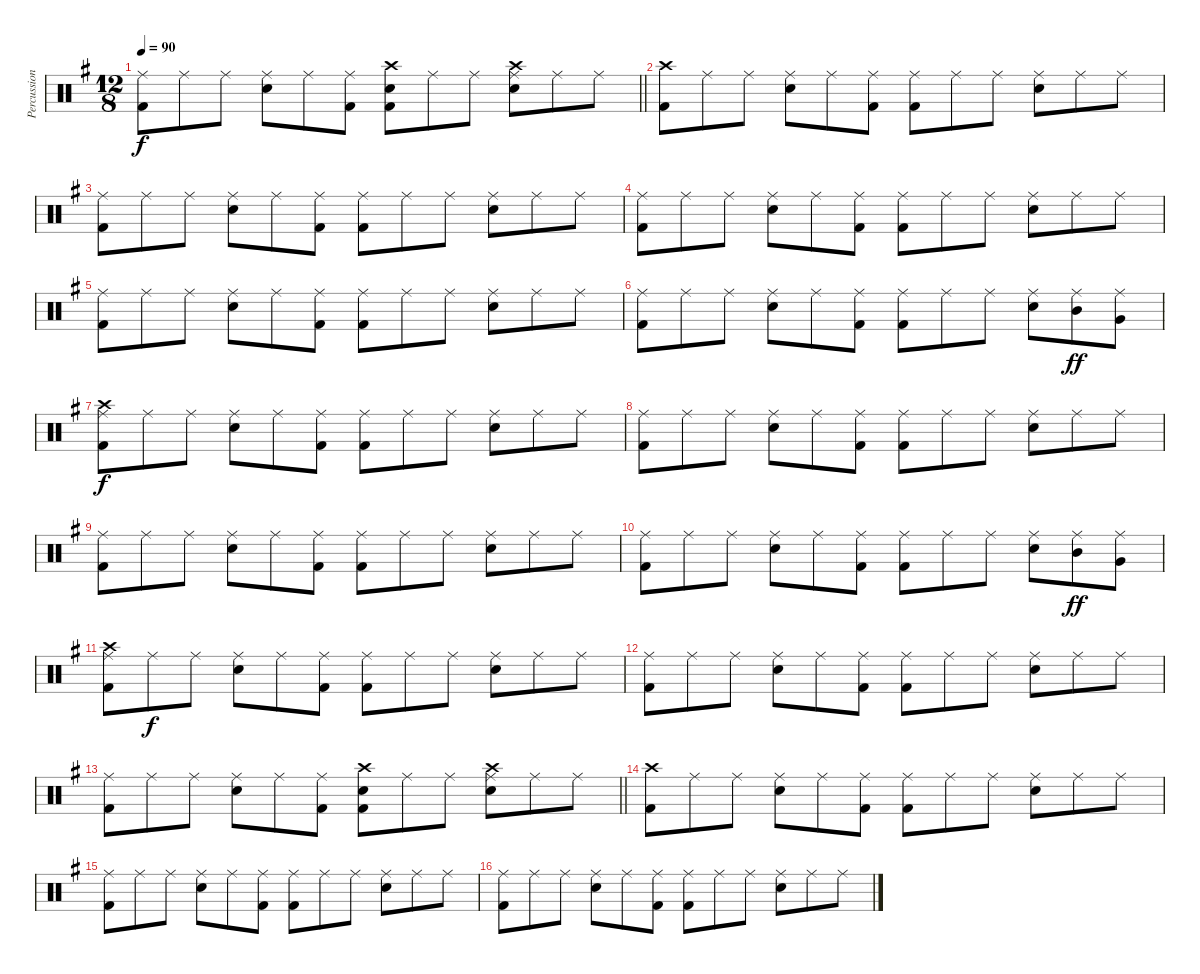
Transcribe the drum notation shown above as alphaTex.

\track ("Percussion" "Percussion") {instrument percussion}
\staff {score}
\articulation defaults
\ts (12 8)
\tempo 90
\clef neutral
\barLineRight lightlight
\ks g
("Ride (middle)" "Kick (hit) 2").8{dy f} "Ride (middle)".8 "Ride (middle)".8 ("Ride (middle)" "Snare (hit) 2").8 "Ride (middle)".8 ("Ride (middle)" "Kick (hit) 2").8 ("Crash high (hit)" "Snare (hit) 2" "Kick (hit) 2").8 "Ride (middle)".8 "Ride (middle)".8 ("Ride (middle)" "Crash high (hit)" "Snare (hit) 2").8 "Ride (middle)".8 "Ride (middle)".8 |
("Crash high (hit)" "Kick (hit) 2").8 "Ride (middle)".8 "Ride (middle)".8 ("Ride (middle)" "Snare (hit) 2").8 "Ride (middle)".8 ("Ride (middle)" "Kick (hit) 2").8 ("Ride (middle)" "Kick (hit) 2").8 "Ride (middle)".8 "Ride (middle)".8 ("Ride (middle)" "Snare (hit) 2").8 "Ride (middle)".8 "Ride (middle)".8 |
("Ride (middle)" "Kick (hit) 2").8 "Ride (middle)".8 "Ride (middle)".8 ("Ride (middle)" "Snare (hit) 2").8 "Ride (middle)".8 ("Ride (middle)" "Kick (hit) 2").8 ("Ride (middle)" "Kick (hit) 2").8 "Ride (middle)".8 "Ride (middle)".8 ("Ride (middle)" "Snare (hit) 2").8 "Ride (middle)".8 "Ride (middle)".8 |
("Ride (middle)" "Kick (hit) 2").8 "Ride (middle)".8 "Ride (middle)".8 ("Ride (middle)" "Snare (hit) 2").8 "Ride (middle)".8 ("Ride (middle)" "Kick (hit) 2").8 ("Ride (middle)" "Kick (hit) 2").8 "Ride (middle)".8 "Ride (middle)".8 ("Ride (middle)" "Snare (hit) 2").8 "Ride (middle)".8 "Ride (middle)".8 |
("Ride (middle)" "Kick (hit) 2").8 "Ride (middle)".8 "Ride (middle)".8 ("Ride (middle)" "Snare (hit) 2").8 "Ride (middle)".8 ("Ride (middle)" "Kick (hit) 2").8 ("Ride (middle)" "Kick (hit) 2").8 "Ride (middle)".8 "Ride (middle)".8 ("Ride (middle)" "Snare (hit) 2").8 "Ride (middle)".8 "Ride (middle)".8 |
("Ride (middle)" "Kick (hit) 2").8 "Ride (middle)".8 "Ride (middle)".8 ("Ride (middle)" "Snare (hit) 2").8 "Ride (middle)".8 ("Ride (middle)" "Kick (hit) 2").8 ("Ride (middle)" "Kick (hit) 2").8 "Ride (middle)".8 "Ride (middle)".8 ("Ride (middle)" "Snare (hit) 2").8 ("Ride (middle)" "Mid Tom (hit)").8{dy ff} ("Ride (middle)" "Very Low Tom (hit)").8 |
("Ride (middle)" "Crash high (hit)" "Kick (hit) 2").8{dy f} "Ride (middle)".8 "Ride (middle)".8 ("Ride (middle)" "Snare (hit) 2").8 "Ride (middle)".8 ("Ride (middle)" "Kick (hit) 2").8 ("Ride (middle)" "Kick (hit) 2").8 "Ride (middle)".8 "Ride (middle)".8 ("Ride (middle)" "Snare (hit) 2").8 "Ride (middle)".8 "Ride (middle)".8 |
("Ride (middle)" "Kick (hit) 2").8 "Ride (middle)".8 "Ride (middle)".8 ("Ride (middle)" "Snare (hit) 2").8 "Ride (middle)".8 ("Ride (middle)" "Kick (hit) 2").8 ("Ride (middle)" "Kick (hit) 2").8 "Ride (middle)".8 "Ride (middle)".8 ("Ride (middle)" "Snare (hit) 2").8 "Ride (middle)".8 "Ride (middle)".8 |
("Ride (middle)" "Kick (hit) 2").8 "Ride (middle)".8 "Ride (middle)".8 ("Ride (middle)" "Snare (hit) 2").8 "Ride (middle)".8 ("Ride (middle)" "Kick (hit) 2").8 ("Ride (middle)" "Kick (hit) 2").8 "Ride (middle)".8 "Ride (middle)".8 ("Ride (middle)" "Snare (hit) 2").8 "Ride (middle)".8 "Ride (middle)".8 |
("Ride (middle)" "Kick (hit) 2").8 "Ride (middle)".8 "Ride (middle)".8 ("Ride (middle)" "Snare (hit) 2").8 "Ride (middle)".8 ("Ride (middle)" "Kick (hit) 2").8 ("Ride (middle)" "Kick (hit) 2").8 "Ride (middle)".8 "Ride (middle)".8 ("Ride (middle)" "Snare (hit) 2").8 ("Ride (middle)" "Mid Tom (hit)").8{dy ff} ("Ride (middle)" "Very Low Tom (hit)").8 |
("Ride (middle)" "Crash high (hit)" "Kick (hit) 2").8 "Ride (middle)".8{dy f} "Ride (middle)".8 ("Ride (middle)" "Snare (hit) 2").8 "Ride (middle)".8 ("Ride (middle)" "Kick (hit) 2").8 ("Ride (middle)" "Kick (hit) 2").8 "Ride (middle)".8 "Ride (middle)".8 ("Ride (middle)" "Snare (hit) 2").8 "Ride (middle)".8 "Ride (middle)".8 |
("Ride (middle)" "Kick (hit) 2").8 "Ride (middle)".8 "Ride (middle)".8 ("Ride (middle)" "Snare (hit) 2").8 "Ride (middle)".8 ("Ride (middle)" "Kick (hit) 2").8 ("Ride (middle)" "Kick (hit) 2").8 "Ride (middle)".8 "Ride (middle)".8 ("Ride (middle)" "Snare (hit) 2").8 "Ride (middle)".8 "Ride (middle)".8 |
\barLineRight lightlight
("Ride (middle)" "Kick (hit) 2").8 "Ride (middle)".8 "Ride (middle)".8 ("Ride (middle)" "Snare (hit) 2").8 "Ride (middle)".8 ("Ride (middle)" "Kick (hit) 2").8 ("Crash high (hit)" "Snare (hit) 2" "Kick (hit) 2").8 "Ride (middle)".8 "Ride (middle)".8 ("Ride (middle)" "Crash high (hit)" "Snare (hit) 2").8 "Ride (middle)".8 "Ride (middle)".8 |
("Crash high (hit)" "Kick (hit) 2").8 "Ride (middle)".8 "Ride (middle)".8 ("Ride (middle)" "Snare (hit) 2").8 "Ride (middle)".8 ("Ride (middle)" "Kick (hit) 2").8 ("Ride (middle)" "Kick (hit) 2").8 "Ride (middle)".8 "Ride (middle)".8 ("Ride (middle)" "Snare (hit) 2").8 "Ride (middle)".8 "Ride (middle)".8 |
("Ride (middle)" "Kick (hit) 2").8 "Ride (middle)".8 "Ride (middle)".8 ("Ride (middle)" "Snare (hit) 2").8 "Ride (middle)".8 ("Ride (middle)" "Kick (hit) 2").8 ("Ride (middle)" "Kick (hit) 2").8 "Ride (middle)".8 "Ride (middle)".8 ("Ride (middle)" "Snare (hit) 2").8 "Ride (middle)".8 "Ride (middle)".8 |
("Ride (middle)" "Kick (hit) 2").8 "Ride (middle)".8 "Ride (middle)".8 ("Ride (middle)" "Snare (hit) 2").8 "Ride (middle)".8 ("Ride (middle)" "Kick (hit) 2").8 ("Ride (middle)" "Kick (hit) 2").8 "Ride (middle)".8 "Ride (middle)".8 ("Ride (middle)" "Snare (hit) 2").8 "Ride (middle)".8 "Ride (middle)".8
